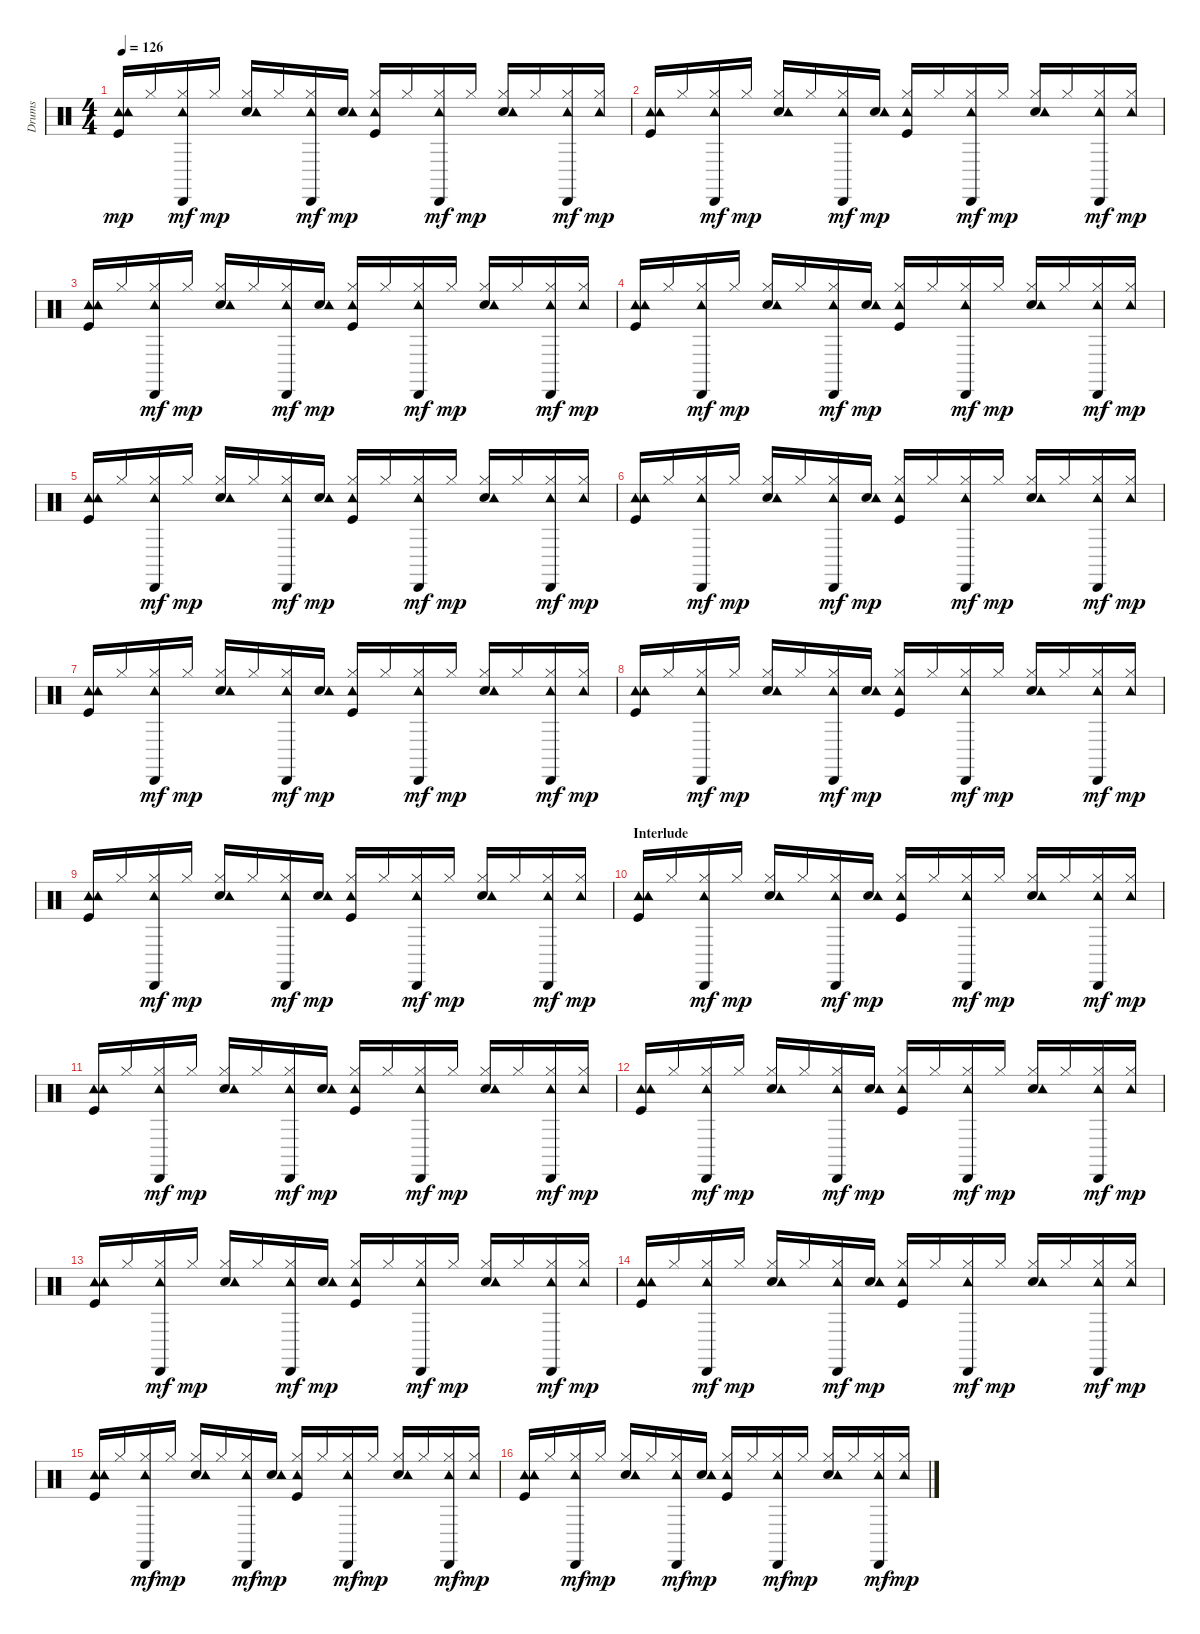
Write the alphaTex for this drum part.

\track ("Drums" "Drums") {instrument percussion}
\staff {score}
\articulation defaults
\ts (4 4)
\tempo 126
\clef neutral
\ks c
("Kick (hit)" "Tambourine (hit)" "Tambourine (hit)").16{dy mp} "Hi-Hat (closed)".16 ("Hi-Hat (closed)" "Tambourine (hit)" "Cabasa (hit)").16{dy mf} "Hi-Hat (closed)".16{dy mp} ("Snare (hit) 2" "Hi-Hat (closed)" "Tambourine (hit)").16 "Hi-Hat (closed)".16 ("Hi-Hat (closed)" "Tambourine (hit)" "Cabasa (hit)").16{dy mf} ("Snare (hit) 2" "Tambourine (hit)").16{dy mp} ("Kick (hit)" "Hi-Hat (closed)" "Tambourine (hit)").16 "Hi-Hat (closed)".16 ("Hi-Hat (closed)" "Tambourine (hit)" "Cabasa (hit)").16{dy mf} "Hi-Hat (closed)".16{dy mp} ("Snare (hit) 2" "Hi-Hat (closed)" "Tambourine (hit)").16 "Hi-Hat (closed)".16 ("Hi-Hat (closed)" "Tambourine (hit)" "Cabasa (hit)").16{dy mf} ("Hi-Hat (closed)" "Tambourine (hit)").16{dy mp} |
("Kick (hit)" "Tambourine (hit)" "Tambourine (hit)").16 "Hi-Hat (closed)".16 ("Hi-Hat (closed)" "Tambourine (hit)" "Cabasa (hit)").16{dy mf} "Hi-Hat (closed)".16{dy mp} ("Snare (hit) 2" "Hi-Hat (closed)" "Tambourine (hit)").16 "Hi-Hat (closed)".16 ("Hi-Hat (closed)" "Tambourine (hit)" "Cabasa (hit)").16{dy mf} ("Snare (hit) 2" "Tambourine (hit)").16{dy mp} ("Kick (hit)" "Hi-Hat (closed)" "Tambourine (hit)").16 "Hi-Hat (closed)".16 ("Hi-Hat (closed)" "Tambourine (hit)" "Cabasa (hit)").16{dy mf} "Hi-Hat (closed)".16{dy mp} ("Snare (hit) 2" "Hi-Hat (closed)" "Tambourine (hit)").16 "Hi-Hat (closed)".16 ("Hi-Hat (closed)" "Tambourine (hit)" "Cabasa (hit)").16{dy mf} ("Hi-Hat (closed)" "Tambourine (hit)").16{dy mp} |
("Kick (hit)" "Tambourine (hit)" "Tambourine (hit)").16 "Hi-Hat (closed)".16 ("Hi-Hat (closed)" "Tambourine (hit)" "Cabasa (hit)").16{dy mf} "Hi-Hat (closed)".16{dy mp} ("Snare (hit) 2" "Hi-Hat (closed)" "Tambourine (hit)").16 "Hi-Hat (closed)".16 ("Hi-Hat (closed)" "Tambourine (hit)" "Cabasa (hit)").16{dy mf} ("Snare (hit) 2" "Tambourine (hit)").16{dy mp} ("Kick (hit)" "Hi-Hat (closed)" "Tambourine (hit)").16 "Hi-Hat (closed)".16 ("Hi-Hat (closed)" "Tambourine (hit)" "Cabasa (hit)").16{dy mf} "Hi-Hat (closed)".16{dy mp} ("Snare (hit) 2" "Hi-Hat (closed)" "Tambourine (hit)").16 "Hi-Hat (closed)".16 ("Hi-Hat (closed)" "Tambourine (hit)" "Cabasa (hit)").16{dy mf} ("Hi-Hat (closed)" "Tambourine (hit)").16{dy mp} |
("Kick (hit)" "Tambourine (hit)" "Tambourine (hit)").16 "Hi-Hat (closed)".16 ("Hi-Hat (closed)" "Tambourine (hit)" "Cabasa (hit)").16{dy mf} "Hi-Hat (closed)".16{dy mp} ("Snare (hit) 2" "Hi-Hat (closed)" "Tambourine (hit)").16 "Hi-Hat (closed)".16 ("Hi-Hat (closed)" "Tambourine (hit)" "Cabasa (hit)").16{dy mf} ("Snare (hit) 2" "Tambourine (hit)").16{dy mp} ("Kick (hit)" "Hi-Hat (closed)" "Tambourine (hit)").16 "Hi-Hat (closed)".16 ("Hi-Hat (closed)" "Tambourine (hit)" "Cabasa (hit)").16{dy mf} "Hi-Hat (closed)".16{dy mp} ("Snare (hit) 2" "Hi-Hat (closed)" "Tambourine (hit)").16 "Hi-Hat (closed)".16 ("Hi-Hat (closed)" "Tambourine (hit)" "Cabasa (hit)").16{dy mf} ("Hi-Hat (closed)" "Tambourine (hit)").16{dy mp} |
("Kick (hit)" "Tambourine (hit)" "Tambourine (hit)").16 "Hi-Hat (closed)".16 ("Hi-Hat (closed)" "Tambourine (hit)" "Cabasa (hit)").16{dy mf} "Hi-Hat (closed)".16{dy mp} ("Snare (hit) 2" "Hi-Hat (closed)" "Tambourine (hit)").16 "Hi-Hat (closed)".16 ("Hi-Hat (closed)" "Tambourine (hit)" "Cabasa (hit)").16{dy mf} ("Snare (hit) 2" "Tambourine (hit)").16{dy mp} ("Kick (hit)" "Hi-Hat (closed)" "Tambourine (hit)").16 "Hi-Hat (closed)".16 ("Hi-Hat (closed)" "Tambourine (hit)" "Cabasa (hit)").16{dy mf} "Hi-Hat (closed)".16{dy mp} ("Snare (hit) 2" "Hi-Hat (closed)" "Tambourine (hit)").16 "Hi-Hat (closed)".16 ("Hi-Hat (closed)" "Tambourine (hit)" "Cabasa (hit)").16{dy mf} ("Hi-Hat (closed)" "Tambourine (hit)").16{dy mp} |
("Kick (hit)" "Tambourine (hit)" "Tambourine (hit)").16 "Hi-Hat (closed)".16 ("Hi-Hat (closed)" "Tambourine (hit)" "Cabasa (hit)").16{dy mf} "Hi-Hat (closed)".16{dy mp} ("Snare (hit) 2" "Hi-Hat (closed)" "Tambourine (hit)").16 "Hi-Hat (closed)".16 ("Hi-Hat (closed)" "Tambourine (hit)" "Cabasa (hit)").16{dy mf} ("Snare (hit) 2" "Tambourine (hit)").16{dy mp} ("Kick (hit)" "Hi-Hat (closed)" "Tambourine (hit)").16 "Hi-Hat (closed)".16 ("Hi-Hat (closed)" "Tambourine (hit)" "Cabasa (hit)").16{dy mf} "Hi-Hat (closed)".16{dy mp} ("Snare (hit) 2" "Hi-Hat (closed)" "Tambourine (hit)").16 "Hi-Hat (closed)".16 ("Hi-Hat (closed)" "Tambourine (hit)" "Cabasa (hit)").16{dy mf} ("Hi-Hat (closed)" "Tambourine (hit)").16{dy mp} |
("Kick (hit)" "Tambourine (hit)" "Tambourine (hit)").16 "Hi-Hat (closed)".16 ("Hi-Hat (closed)" "Tambourine (hit)" "Cabasa (hit)").16{dy mf} "Hi-Hat (closed)".16{dy mp} ("Snare (hit) 2" "Hi-Hat (closed)" "Tambourine (hit)").16 "Hi-Hat (closed)".16 ("Hi-Hat (closed)" "Tambourine (hit)" "Cabasa (hit)").16{dy mf} ("Snare (hit) 2" "Tambourine (hit)").16{dy mp} ("Kick (hit)" "Hi-Hat (closed)" "Tambourine (hit)").16 "Hi-Hat (closed)".16 ("Hi-Hat (closed)" "Tambourine (hit)" "Cabasa (hit)").16{dy mf} "Hi-Hat (closed)".16{dy mp} ("Snare (hit) 2" "Hi-Hat (closed)" "Tambourine (hit)").16 "Hi-Hat (closed)".16 ("Hi-Hat (closed)" "Tambourine (hit)" "Cabasa (hit)").16{dy mf} ("Hi-Hat (closed)" "Tambourine (hit)").16{dy mp} |
("Kick (hit)" "Tambourine (hit)" "Tambourine (hit)").16 "Hi-Hat (closed)".16 ("Hi-Hat (closed)" "Tambourine (hit)" "Cabasa (hit)").16{dy mf} "Hi-Hat (closed)".16{dy mp} ("Snare (hit) 2" "Hi-Hat (closed)" "Tambourine (hit)").16 "Hi-Hat (closed)".16 ("Hi-Hat (closed)" "Tambourine (hit)" "Cabasa (hit)").16{dy mf} ("Snare (hit) 2" "Tambourine (hit)").16{dy mp} ("Kick (hit)" "Hi-Hat (closed)" "Tambourine (hit)").16 "Hi-Hat (closed)".16 ("Hi-Hat (closed)" "Tambourine (hit)" "Cabasa (hit)").16{dy mf} "Hi-Hat (closed)".16{dy mp} ("Snare (hit) 2" "Hi-Hat (closed)" "Tambourine (hit)").16 "Hi-Hat (closed)".16 ("Hi-Hat (closed)" "Tambourine (hit)" "Cabasa (hit)").16{dy mf} ("Hi-Hat (closed)" "Tambourine (hit)").16{dy mp} |
("Kick (hit)" "Tambourine (hit)" "Tambourine (hit)").16 "Hi-Hat (closed)".16 ("Hi-Hat (closed)" "Tambourine (hit)" "Cabasa (hit)").16{dy mf} "Hi-Hat (closed)".16{dy mp} ("Snare (hit) 2" "Hi-Hat (closed)" "Tambourine (hit)").16 "Hi-Hat (closed)".16 ("Hi-Hat (closed)" "Tambourine (hit)" "Cabasa (hit)").16{dy mf} ("Snare (hit) 2" "Tambourine (hit)").16{dy mp} ("Kick (hit)" "Hi-Hat (closed)" "Tambourine (hit)").16 "Hi-Hat (closed)".16 ("Hi-Hat (closed)" "Tambourine (hit)" "Cabasa (hit)").16{dy mf} "Hi-Hat (closed)".16{dy mp} ("Snare (hit) 2" "Hi-Hat (closed)" "Tambourine (hit)").16 "Hi-Hat (closed)".16 ("Hi-Hat (closed)" "Tambourine (hit)" "Cabasa (hit)").16{dy mf} ("Hi-Hat (closed)" "Tambourine (hit)").16{dy mp} |
\section ("" "Interlude")
("Kick (hit)" "Tambourine (hit)" "Tambourine (hit)").16 "Hi-Hat (closed)".16 ("Hi-Hat (closed)" "Tambourine (hit)" "Cabasa (hit)").16{dy mf} "Hi-Hat (closed)".16{dy mp} ("Snare (hit) 2" "Hi-Hat (closed)" "Tambourine (hit)").16 "Hi-Hat (closed)".16 ("Hi-Hat (closed)" "Tambourine (hit)" "Cabasa (hit)").16{dy mf} ("Snare (hit) 2" "Tambourine (hit)").16{dy mp} ("Kick (hit)" "Hi-Hat (closed)" "Tambourine (hit)").16 "Hi-Hat (closed)".16 ("Hi-Hat (closed)" "Tambourine (hit)" "Cabasa (hit)").16{dy mf} "Hi-Hat (closed)".16{dy mp} ("Snare (hit) 2" "Hi-Hat (closed)" "Tambourine (hit)").16 "Hi-Hat (closed)".16 ("Hi-Hat (closed)" "Tambourine (hit)" "Cabasa (hit)").16{dy mf} ("Hi-Hat (closed)" "Tambourine (hit)").16{dy mp} |
("Kick (hit)" "Tambourine (hit)" "Tambourine (hit)").16 "Hi-Hat (closed)".16 ("Hi-Hat (closed)" "Tambourine (hit)" "Cabasa (hit)").16{dy mf} "Hi-Hat (closed)".16{dy mp} ("Snare (hit) 2" "Hi-Hat (closed)" "Tambourine (hit)").16 "Hi-Hat (closed)".16 ("Hi-Hat (closed)" "Tambourine (hit)" "Cabasa (hit)").16{dy mf} ("Snare (hit) 2" "Tambourine (hit)").16{dy mp} ("Kick (hit)" "Hi-Hat (closed)" "Tambourine (hit)").16 "Hi-Hat (closed)".16 ("Hi-Hat (closed)" "Tambourine (hit)" "Cabasa (hit)").16{dy mf} "Hi-Hat (closed)".16{dy mp} ("Snare (hit) 2" "Hi-Hat (closed)" "Tambourine (hit)").16 "Hi-Hat (closed)".16 ("Hi-Hat (closed)" "Tambourine (hit)" "Cabasa (hit)").16{dy mf} ("Hi-Hat (closed)" "Tambourine (hit)").16{dy mp} |
("Kick (hit)" "Tambourine (hit)" "Tambourine (hit)").16 "Hi-Hat (closed)".16 ("Hi-Hat (closed)" "Tambourine (hit)" "Cabasa (hit)").16{dy mf} "Hi-Hat (closed)".16{dy mp} ("Snare (hit) 2" "Hi-Hat (closed)" "Tambourine (hit)").16 "Hi-Hat (closed)".16 ("Hi-Hat (closed)" "Tambourine (hit)" "Cabasa (hit)").16{dy mf} ("Snare (hit) 2" "Tambourine (hit)").16{dy mp} ("Kick (hit)" "Hi-Hat (closed)" "Tambourine (hit)").16 "Hi-Hat (closed)".16 ("Hi-Hat (closed)" "Tambourine (hit)" "Cabasa (hit)").16{dy mf} "Hi-Hat (closed)".16{dy mp} ("Snare (hit) 2" "Hi-Hat (closed)" "Tambourine (hit)").16 "Hi-Hat (closed)".16 ("Hi-Hat (closed)" "Tambourine (hit)" "Cabasa (hit)").16{dy mf} ("Hi-Hat (closed)" "Tambourine (hit)").16{dy mp} |
("Kick (hit)" "Tambourine (hit)" "Tambourine (hit)").16 "Hi-Hat (closed)".16 ("Hi-Hat (closed)" "Tambourine (hit)" "Cabasa (hit)").16{dy mf} "Hi-Hat (closed)".16{dy mp} ("Snare (hit) 2" "Hi-Hat (closed)" "Tambourine (hit)").16 "Hi-Hat (closed)".16 ("Hi-Hat (closed)" "Tambourine (hit)" "Cabasa (hit)").16{dy mf} ("Snare (hit) 2" "Tambourine (hit)").16{dy mp} ("Kick (hit)" "Hi-Hat (closed)" "Tambourine (hit)").16 "Hi-Hat (closed)".16 ("Hi-Hat (closed)" "Tambourine (hit)" "Cabasa (hit)").16{dy mf} "Hi-Hat (closed)".16{dy mp} ("Snare (hit) 2" "Hi-Hat (closed)" "Tambourine (hit)").16 "Hi-Hat (closed)".16 ("Hi-Hat (closed)" "Tambourine (hit)" "Cabasa (hit)").16{dy mf} ("Hi-Hat (closed)" "Tambourine (hit)").16{dy mp} |
("Kick (hit)" "Tambourine (hit)" "Tambourine (hit)").16 "Hi-Hat (closed)".16 ("Hi-Hat (closed)" "Tambourine (hit)" "Cabasa (hit)").16{dy mf} "Hi-Hat (closed)".16{dy mp} ("Snare (hit) 2" "Hi-Hat (closed)" "Tambourine (hit)").16 "Hi-Hat (closed)".16 ("Hi-Hat (closed)" "Tambourine (hit)" "Cabasa (hit)").16{dy mf} ("Snare (hit) 2" "Tambourine (hit)").16{dy mp} ("Kick (hit)" "Hi-Hat (closed)" "Tambourine (hit)").16 "Hi-Hat (closed)".16 ("Hi-Hat (closed)" "Tambourine (hit)" "Cabasa (hit)").16{dy mf} "Hi-Hat (closed)".16{dy mp} ("Snare (hit) 2" "Hi-Hat (closed)" "Tambourine (hit)").16 "Hi-Hat (closed)".16 ("Hi-Hat (closed)" "Tambourine (hit)" "Cabasa (hit)").16{dy mf} ("Hi-Hat (closed)" "Tambourine (hit)").16{dy mp} |
("Kick (hit)" "Tambourine (hit)" "Tambourine (hit)").16 "Hi-Hat (closed)".16 ("Hi-Hat (closed)" "Tambourine (hit)" "Cabasa (hit)").16{dy mf} "Hi-Hat (closed)".16{dy mp} ("Snare (hit) 2" "Hi-Hat (closed)" "Tambourine (hit)").16 "Hi-Hat (closed)".16 ("Hi-Hat (closed)" "Tambourine (hit)" "Cabasa (hit)").16{dy mf} ("Snare (hit) 2" "Tambourine (hit)").16{dy mp} ("Kick (hit)" "Hi-Hat (closed)" "Tambourine (hit)").16 "Hi-Hat (closed)".16 ("Hi-Hat (closed)" "Tambourine (hit)" "Cabasa (hit)").16{dy mf} "Hi-Hat (closed)".16{dy mp} ("Snare (hit) 2" "Hi-Hat (closed)" "Tambourine (hit)").16 "Hi-Hat (closed)".16 ("Hi-Hat (closed)" "Tambourine (hit)" "Cabasa (hit)").16{dy mf} ("Hi-Hat (closed)" "Tambourine (hit)").16{dy mp} |
("Kick (hit)" "Tambourine (hit)" "Tambourine (hit)").16 "Hi-Hat (closed)".16 ("Hi-Hat (closed)" "Tambourine (hit)" "Cabasa (hit)").16{dy mf} "Hi-Hat (closed)".16{dy mp} ("Snare (hit) 2" "Hi-Hat (closed)" "Tambourine (hit)").16 "Hi-Hat (closed)".16 ("Hi-Hat (closed)" "Tambourine (hit)" "Cabasa (hit)").16{dy mf} ("Snare (hit) 2" "Tambourine (hit)").16{dy mp} ("Kick (hit)" "Hi-Hat (closed)" "Tambourine (hit)").16 "Hi-Hat (closed)".16 ("Hi-Hat (closed)" "Tambourine (hit)" "Cabasa (hit)").16{dy mf} "Hi-Hat (closed)".16{dy mp} ("Snare (hit) 2" "Hi-Hat (closed)" "Tambourine (hit)").16 "Hi-Hat (closed)".16 ("Hi-Hat (closed)" "Tambourine (hit)" "Cabasa (hit)").16{dy mf} ("Hi-Hat (closed)" "Tambourine (hit)").16{dy mp}
